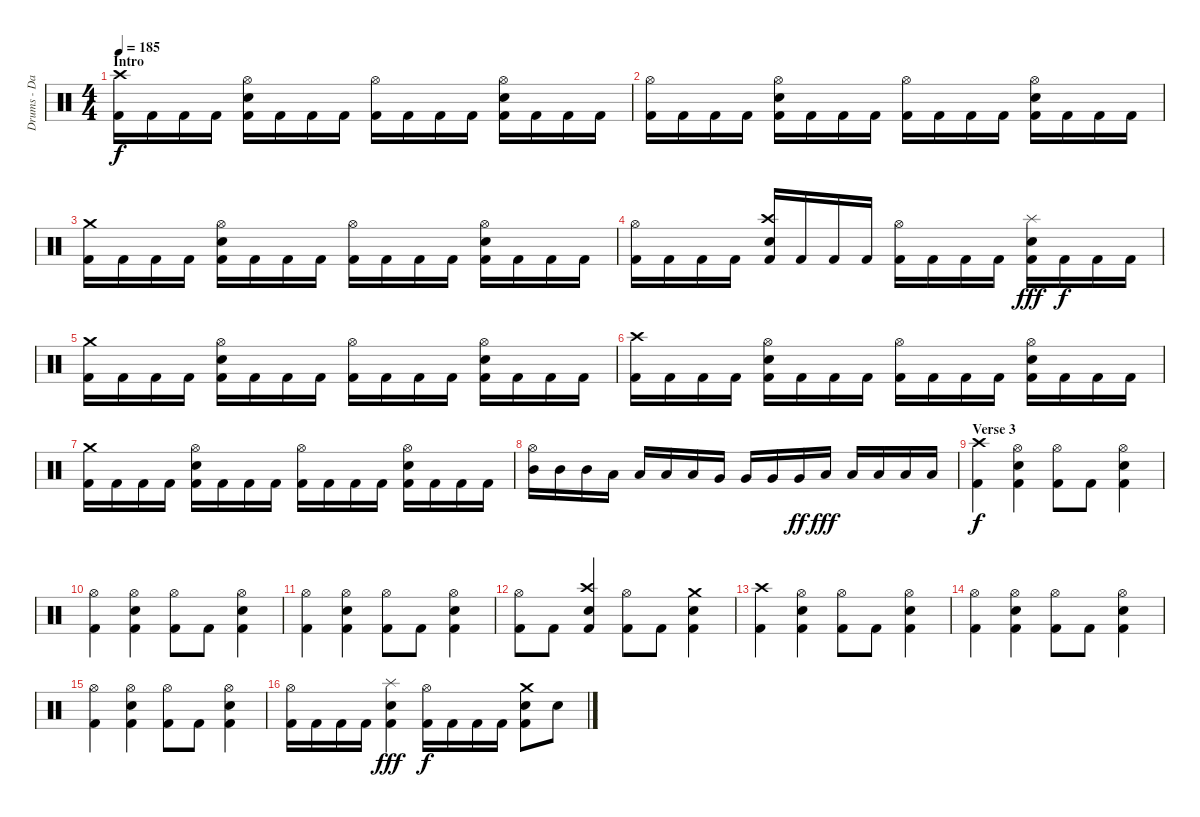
\track ("Drums - Daniel Zimmermann" "Drums - Da") {instrument percussion}
\staff {score}
\articulation defaults
\ts (4 4)
\section ("" "Intro")
\tempo 185
\clef neutral
\ks c
("Kick (hit) 2" "Crash high (hit)").16{dy f} "Kick (hit) 2".16 "Kick (hit) 2".16 "Kick (hit) 2".16 ("Kick (hit) 2" "Electric Snare (hit)" "Hi-Hat (open)").16 "Kick (hit) 2".16 "Kick (hit) 2".16 "Kick (hit) 2".16 ("Kick (hit) 2" "Hi-Hat (open)").16 "Kick (hit) 2".16 "Kick (hit) 2".16 "Kick (hit) 2".16 ("Kick (hit) 2" "Electric Snare (hit)" "Hi-Hat (open)").16 "Kick (hit) 2".16 "Kick (hit) 2".16 "Kick (hit) 2".16 |
("Kick (hit) 2" "Hi-Hat (open)").16 "Kick (hit) 2".16 "Kick (hit) 2".16 "Kick (hit) 2".16 ("Kick (hit) 2" "Electric Snare (hit)" "Hi-Hat (open)").16 "Kick (hit) 2".16 "Kick (hit) 2".16 "Kick (hit) 2".16 ("Kick (hit) 2" "Hi-Hat (open)").16 "Kick (hit) 2".16 "Kick (hit) 2".16 "Kick (hit) 2".16 ("Kick (hit) 2" "Electric Snare (hit)" "Hi-Hat (open)").16 "Kick (hit) 2".16 "Kick (hit) 2".16 "Kick (hit) 2".16 |
("Kick (hit) 2" "Crash medium (hit)").16 "Kick (hit) 2".16 "Kick (hit) 2".16 "Kick (hit) 2".16 ("Kick (hit) 2" "Electric Snare (hit)" "Hi-Hat (open)").16 "Kick (hit) 2".16 "Kick (hit) 2".16 "Kick (hit) 2".16 ("Kick (hit) 2" "Hi-Hat (open)").16 "Kick (hit) 2".16 "Kick (hit) 2".16 "Kick (hit) 2".16 ("Kick (hit) 2" "Electric Snare (hit)" "Hi-Hat (open)").16 "Kick (hit) 2".16 "Kick (hit) 2".16 "Kick (hit) 2".16 |
("Kick (hit) 2" "Hi-Hat (open)").16 "Kick (hit) 2".16 "Kick (hit) 2".16 "Kick (hit) 2".16 ("Kick (hit) 2" "Electric Snare (hit)" "Crash high (hit)").16 "Kick (hit) 2".16 "Kick (hit) 2".16 "Kick (hit) 2".16 ("Kick (hit) 2" "Hi-Hat (open)").16 "Kick (hit) 2".16 "Kick (hit) 2".16 "Kick (hit) 2".16 ("Kick (hit) 2" "Electric Snare (hit)" "Splash (hit)").16{dy fff} "Kick (hit) 2".16{dy f} "Kick (hit) 2".16 "Kick (hit) 2".16 |
("Kick (hit) 2" "Crash medium (hit)").16 "Kick (hit) 2".16 "Kick (hit) 2".16 "Kick (hit) 2".16 ("Kick (hit) 2" "Electric Snare (hit)" "Hi-Hat (open)").16 "Kick (hit) 2".16 "Kick (hit) 2".16 "Kick (hit) 2".16 ("Kick (hit) 2" "Hi-Hat (open)").16 "Kick (hit) 2".16 "Kick (hit) 2".16 "Kick (hit) 2".16 ("Kick (hit) 2" "Electric Snare (hit)" "Hi-Hat (open)").16 "Kick (hit) 2".16 "Kick (hit) 2".16 "Kick (hit) 2".16 |
("Kick (hit) 2" "Crash high (hit)").16 "Kick (hit) 2".16 "Kick (hit) 2".16 "Kick (hit) 2".16 ("Kick (hit) 2" "Electric Snare (hit)" "Hi-Hat (open)").16 "Kick (hit) 2".16 "Kick (hit) 2".16 "Kick (hit) 2".16 ("Kick (hit) 2" "Hi-Hat (open)").16 "Kick (hit) 2".16 "Kick (hit) 2".16 "Kick (hit) 2".16 ("Kick (hit) 2" "Electric Snare (hit)" "Hi-Hat (open)").16 "Kick (hit) 2".16 "Kick (hit) 2".16 "Kick (hit) 2".16 |
("Kick (hit) 2" "Crash medium (hit)").16 "Kick (hit) 2".16 "Kick (hit) 2".16 "Kick (hit) 2".16 ("Kick (hit) 2" "Electric Snare (hit)" "Hi-Hat (open)").16 "Kick (hit) 2".16 "Kick (hit) 2".16 "Kick (hit) 2".16 ("Kick (hit) 2" "Hi-Hat (open)").16 "Kick (hit) 2".16 "Kick (hit) 2".16 "Kick (hit) 2".16 ("Kick (hit) 2" "Electric Snare (hit)" "Hi-Hat (open)").16 "Kick (hit) 2".16 "Kick (hit) 2".16 "Kick (hit) 2".16 |
("Mid Tom (hit)" "Hi-Hat (open)").16 "Mid Tom (hit)".16 "Mid Tom (hit)".16 "Low Tom (hit)".16 "Low Tom (hit)".16 "Low Tom (hit)".16 "Low Tom (hit)".16 "Very Low Tom (hit)".16 "Very Low Tom (hit)".16 "Very Low Tom (hit)".16 "Very Low Tom (hit)".16{dy ff} "Low Floor Tom (hit)".16{dy fff} "Low Floor Tom (hit)".16 "Low Floor Tom (hit)".16 "Low Floor Tom (hit)".16 "Low Floor Tom (hit)".16 |
\section ("" "Verse 3")
("Kick (hit) 2" "Crash high (hit)").4{dy f} ("Kick (hit) 2" "Electric Snare (hit)" "Hi-Hat (open)").4 ("Kick (hit) 2" "Hi-Hat (open)").8 "Kick (hit) 2".8 ("Kick (hit) 2" "Electric Snare (hit)" "Hi-Hat (open)").4 |
("Kick (hit) 2" "Hi-Hat (open)").4 ("Kick (hit) 2" "Electric Snare (hit)" "Hi-Hat (open)").4 ("Kick (hit) 2" "Hi-Hat (open)").8 "Kick (hit) 2".8 ("Kick (hit) 2" "Electric Snare (hit)" "Hi-Hat (open)").4 |
("Kick (hit) 2" "Hi-Hat (open)").4 ("Kick (hit) 2" "Electric Snare (hit)" "Hi-Hat (open)").4 ("Kick (hit) 2" "Hi-Hat (open)").8 "Kick (hit) 2".8 ("Kick (hit) 2" "Electric Snare (hit)" "Hi-Hat (open)").4 |
("Kick (hit) 2" "Hi-Hat (open)").8 "Kick (hit) 2".8 ("Kick (hit) 2" "Electric Snare (hit)" "Crash high (hit)").4 ("Kick (hit) 2" "Hi-Hat (open)").8 "Kick (hit) 2".8 ("Kick (hit) 2" "Electric Snare (hit)" "Crash medium (hit)").4 |
("Kick (hit) 2" "Crash high (hit)").4 ("Kick (hit) 2" "Electric Snare (hit)" "Hi-Hat (open)").4 ("Kick (hit) 2" "Hi-Hat (open)").8 "Kick (hit) 2".8 ("Kick (hit) 2" "Electric Snare (hit)" "Hi-Hat (open)").4 |
("Kick (hit) 2" "Hi-Hat (open)").4 ("Kick (hit) 2" "Electric Snare (hit)" "Hi-Hat (open)").4 ("Kick (hit) 2" "Hi-Hat (open)").8 "Kick (hit) 2".8 ("Kick (hit) 2" "Electric Snare (hit)" "Hi-Hat (open)").4 |
("Kick (hit) 2" "Hi-Hat (open)").4 ("Kick (hit) 2" "Electric Snare (hit)" "Hi-Hat (open)").4 ("Kick (hit) 2" "Hi-Hat (open)").8 "Kick (hit) 2".8 ("Kick (hit) 2" "Electric Snare (hit)" "Hi-Hat (open)").4 |
("Kick (hit) 2" "Hi-Hat (open)").16 "Kick (hit) 2".16 "Kick (hit) 2".16 "Kick (hit) 2".16 ("Kick (hit) 2" "Electric Snare (hit)" "Splash (hit)").4{dy fff} ("Kick (hit) 2" "Hi-Hat (open)").16{dy f} "Kick (hit) 2".16 "Kick (hit) 2".16 "Kick (hit) 2".16 ("Kick (hit) 2" "Electric Snare (hit)" "Crash medium (hit)").8 "Electric Snare (hit)".8
